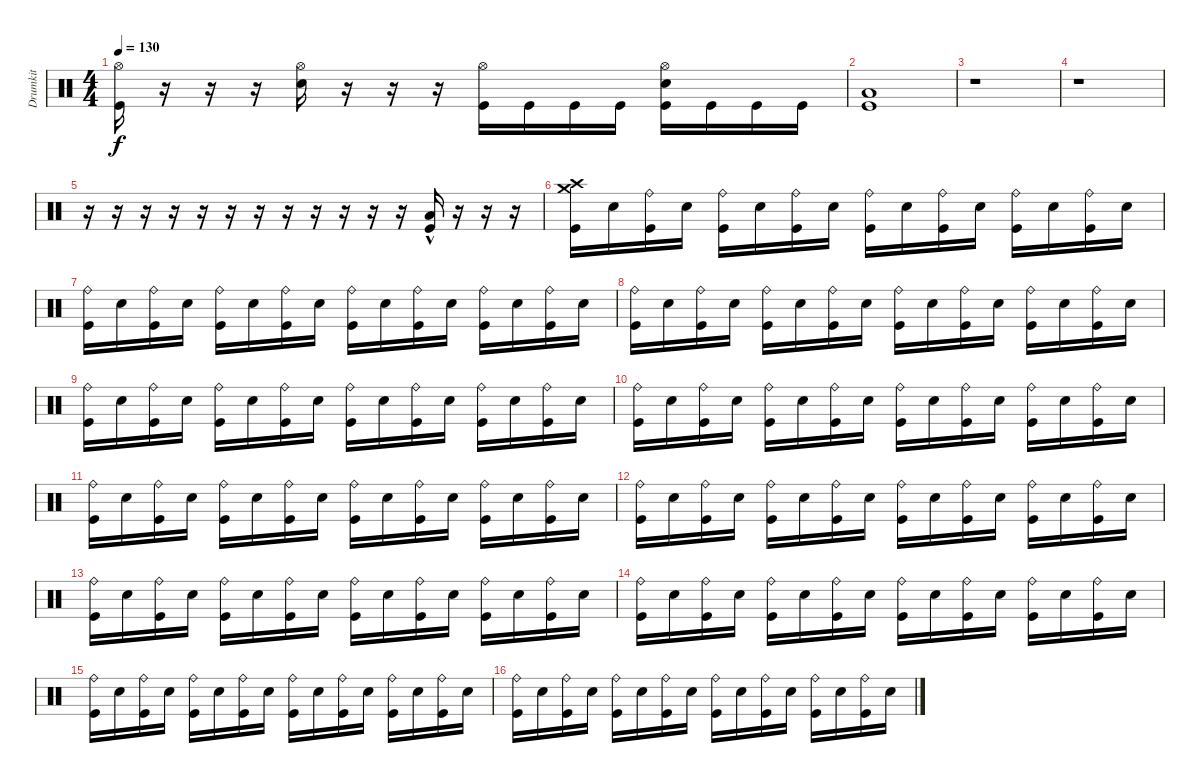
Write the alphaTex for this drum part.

\track ("Drumkit" "Drumkit") {instrument percussion}
\staff {score}
\articulation defaults
\ts (4 4)
\tempo 130
\clef neutral
\ks c
("Hi-Hat (open)" "Kick (hit)").16{dy f} r.16 r.16 r.16 ("Hi-Hat (open)" "Snare (hit) 2").16 r.16 r.16 r.16 ("Hi-Hat (open)" "Kick (hit)").16 "Kick (hit)".16 "Kick (hit)".16 "Kick (hit)".16 ("Hi-Hat (open)" "Snare (hit) 2" "Kick (hit)").16 "Kick (hit)".16 "Kick (hit)".16 "Kick (hit)".16 |
("Low Floor Tom (hit)" "Kick (hit)").1 |
r.1 |
r.1 |
r.16 r.16 r.16 r.16 r.16 r.16 r.16 r.16 r.16 r.16 r.16 r.16 ("Low Floor Tom (hit)"{hac} "Kick (hit)"{hac}).16 r.16 r.16 r.16 |
("Crash medium (hit)" "Crash high (hit)" "Kick (hit)").16 "Snare (hit) 2".16 ("Ride (bell)" "Kick (hit)").16 "Snare (hit) 2".16 ("Ride (bell)" "Kick (hit)").16 "Snare (hit) 2".16 ("Ride (bell)" "Kick (hit)").16 "Snare (hit) 2".16 ("Ride (bell)" "Kick (hit)").16 "Snare (hit) 2".16 ("Ride (bell)" "Kick (hit)").16 "Snare (hit) 2".16 ("Ride (bell)" "Kick (hit)").16 "Snare (hit) 2".16 ("Ride (bell)" "Kick (hit)").16 "Snare (hit) 2".16 |
("Ride (bell)" "Kick (hit)").16 "Snare (hit) 2".16 ("Ride (bell)" "Kick (hit)").16 "Snare (hit) 2".16 ("Ride (bell)" "Kick (hit)").16 "Snare (hit) 2".16 ("Ride (bell)" "Kick (hit)").16 "Snare (hit) 2".16 ("Ride (bell)" "Kick (hit)").16 "Snare (hit) 2".16 ("Ride (bell)" "Kick (hit)").16 "Snare (hit) 2".16 ("Ride (bell)" "Kick (hit)").16 "Snare (hit) 2".16 ("Ride (bell)" "Kick (hit)").16 "Snare (hit) 2".16 |
("Ride (bell)" "Kick (hit)").16 "Snare (hit) 2".16 ("Ride (bell)" "Kick (hit)").16 "Snare (hit) 2".16 ("Ride (bell)" "Kick (hit)").16 "Snare (hit) 2".16 ("Ride (bell)" "Kick (hit)").16 "Snare (hit) 2".16 ("Ride (bell)" "Kick (hit)").16 "Snare (hit) 2".16 ("Ride (bell)" "Kick (hit)").16 "Snare (hit) 2".16 ("Ride (bell)" "Kick (hit)").16 "Snare (hit) 2".16 ("Ride (bell)" "Kick (hit)").16 "Snare (hit) 2".16 |
("Ride (bell)" "Kick (hit)").16 "Snare (hit) 2".16 ("Ride (bell)" "Kick (hit)").16 "Snare (hit) 2".16 ("Ride (bell)" "Kick (hit)").16 "Snare (hit) 2".16 ("Ride (bell)" "Kick (hit)").16 "Snare (hit) 2".16 ("Ride (bell)" "Kick (hit)").16 "Snare (hit) 2".16 ("Ride (bell)" "Kick (hit)").16 "Snare (hit) 2".16 ("Ride (bell)" "Kick (hit)").16 "Snare (hit) 2".16 ("Ride (bell)" "Kick (hit)").16 "Snare (hit) 2".16 |
("Ride (bell)" "Kick (hit)").16 "Snare (hit) 2".16 ("Ride (bell)" "Kick (hit)").16 "Snare (hit) 2".16 ("Ride (bell)" "Kick (hit)").16 "Snare (hit) 2".16 ("Ride (bell)" "Kick (hit)").16 "Snare (hit) 2".16 ("Ride (bell)" "Kick (hit)").16 "Snare (hit) 2".16 ("Ride (bell)" "Kick (hit)").16 "Snare (hit) 2".16 ("Ride (bell)" "Kick (hit)").16 "Snare (hit) 2".16 ("Ride (bell)" "Kick (hit)").16 "Snare (hit) 2".16 |
("Ride (bell)" "Kick (hit)").16 "Snare (hit) 2".16 ("Ride (bell)" "Kick (hit)").16 "Snare (hit) 2".16 ("Ride (bell)" "Kick (hit)").16 "Snare (hit) 2".16 ("Ride (bell)" "Kick (hit)").16 "Snare (hit) 2".16 ("Ride (bell)" "Kick (hit)").16 "Snare (hit) 2".16 ("Ride (bell)" "Kick (hit)").16 "Snare (hit) 2".16 ("Ride (bell)" "Kick (hit)").16 "Snare (hit) 2".16 ("Ride (bell)" "Kick (hit)").16 "Snare (hit) 2".16 |
("Ride (bell)" "Kick (hit)").16 "Snare (hit) 2".16 ("Ride (bell)" "Kick (hit)").16 "Snare (hit) 2".16 ("Ride (bell)" "Kick (hit)").16 "Snare (hit) 2".16 ("Ride (bell)" "Kick (hit)").16 "Snare (hit) 2".16 ("Ride (bell)" "Kick (hit)").16 "Snare (hit) 2".16 ("Ride (bell)" "Kick (hit)").16 "Snare (hit) 2".16 ("Ride (bell)" "Kick (hit)").16 "Snare (hit) 2".16 ("Ride (bell)" "Kick (hit)").16 "Snare (hit) 2".16 |
("Ride (bell)" "Kick (hit)").16 "Snare (hit) 2".16 ("Ride (bell)" "Kick (hit)").16 "Snare (hit) 2".16 ("Ride (bell)" "Kick (hit)").16 "Snare (hit) 2".16 ("Ride (bell)" "Kick (hit)").16 "Snare (hit) 2".16 ("Ride (bell)" "Kick (hit)").16 "Snare (hit) 2".16 ("Ride (bell)" "Kick (hit)").16 "Snare (hit) 2".16 ("Ride (bell)" "Kick (hit)").16 "Snare (hit) 2".16 ("Ride (bell)" "Kick (hit)").16 "Snare (hit) 2".16 |
("Ride (bell)" "Kick (hit)").16 "Snare (hit) 2".16 ("Ride (bell)" "Kick (hit)").16 "Snare (hit) 2".16 ("Ride (bell)" "Kick (hit)").16 "Snare (hit) 2".16 ("Ride (bell)" "Kick (hit)").16 "Snare (hit) 2".16 ("Ride (bell)" "Kick (hit)").16 "Snare (hit) 2".16 ("Ride (bell)" "Kick (hit)").16 "Snare (hit) 2".16 ("Ride (bell)" "Kick (hit)").16 "Snare (hit) 2".16 ("Ride (bell)" "Kick (hit)").16 "Snare (hit) 2".16 |
("Ride (bell)" "Kick (hit)").16 "Snare (hit) 2".16 ("Ride (bell)" "Kick (hit)").16 "Snare (hit) 2".16 ("Ride (bell)" "Kick (hit)").16 "Snare (hit) 2".16 ("Ride (bell)" "Kick (hit)").16 "Snare (hit) 2".16 ("Ride (bell)" "Kick (hit)").16 "Snare (hit) 2".16 ("Ride (bell)" "Kick (hit)").16 "Snare (hit) 2".16 ("Ride (bell)" "Kick (hit)").16 "Snare (hit) 2".16 ("Ride (bell)" "Kick (hit)").16 "Snare (hit) 2".16 |
("Ride (bell)" "Kick (hit)").16 "Snare (hit) 2".16 ("Ride (bell)" "Kick (hit)").16 "Snare (hit) 2".16 ("Ride (bell)" "Kick (hit)").16 "Snare (hit) 2".16 ("Ride (bell)" "Kick (hit)").16 "Snare (hit) 2".16 ("Ride (bell)" "Kick (hit)").16 "Snare (hit) 2".16 ("Ride (bell)" "Kick (hit)").16 "Snare (hit) 2".16 ("Ride (bell)" "Kick (hit)").16 "Snare (hit) 2".16 ("Ride (bell)" "Kick (hit)").16 "Snare (hit) 2".16
